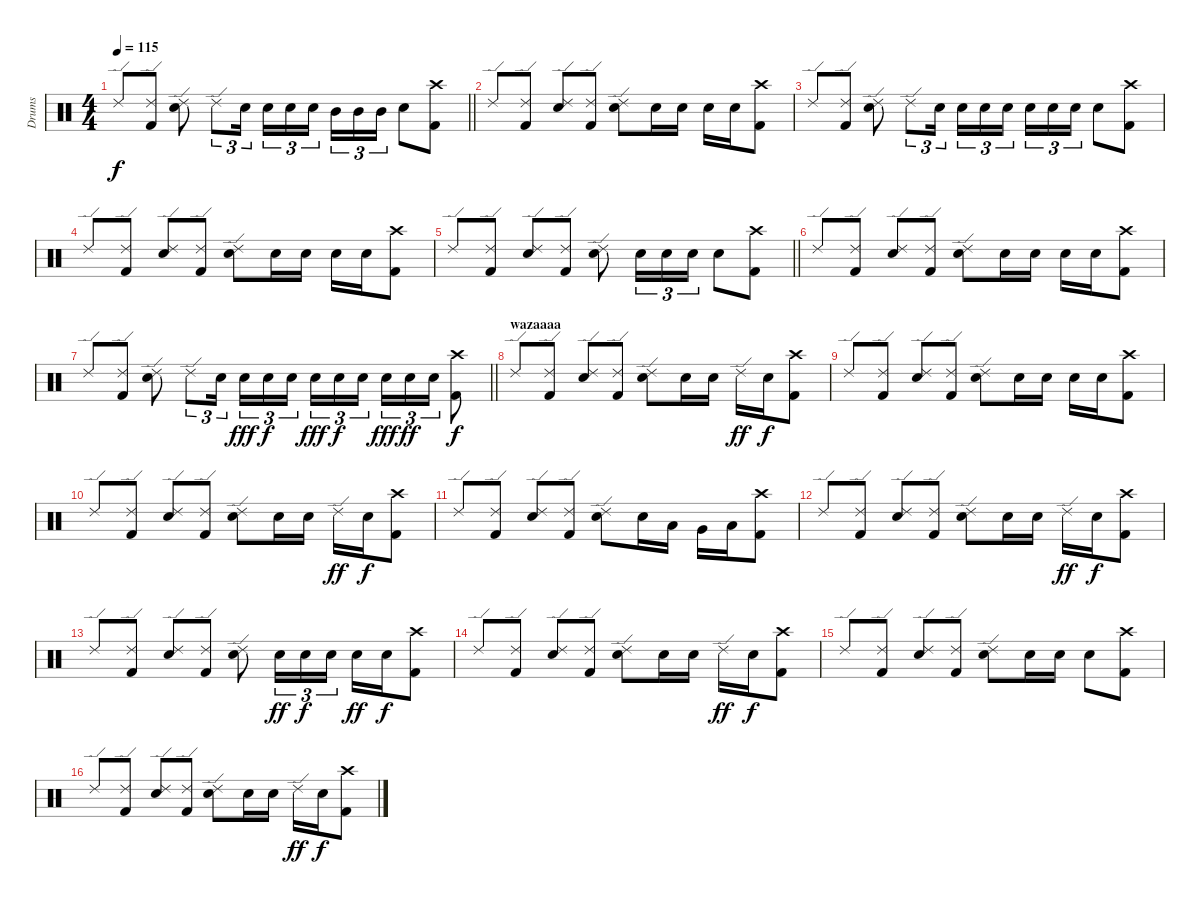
\track ("Drums" "Drums") {instrument percussion}
\staff {score}
\articulation defaults
\ts (4 4)
\tempo 115
\clef neutral
\barLineRight lightlight
\ks c "Ride (edge) 2".8{dy f}
("Ride (edge) 2" "Kick (hit) 2").8 ("Ride (edge) 2" "Electric Snare (hit)").8 "Ride (edge) 2".8{tu (3 2)} "Electric Snare (hit)".16{tu (3 2)} "Electric Snare (hit)".16{tu (3 2)} "Electric Snare (hit)".16{tu (3 2)} "Electric Snare (hit)".16{tu (3 2) beam splitsecondary} "Mid Tom (hit)".16{tu (3 2)} "Mid Tom (hit)".16{tu (3 2)} "Mid Tom (hit)".16{tu (3 2)} "Electric Snare (hit)".8 ("Crash high (hit)" "Kick (hit) 2").8 |
\section ("" "")
"Ride (edge) 2".8 ("Ride (edge) 2" "Kick (hit) 2").8 ("Ride (edge) 2" "Electric Snare (hit)").8 ("Ride (edge) 2" "Kick (hit) 2").8 ("Ride (edge) 2" "Electric Snare (hit)").8 "Electric Snare (hit)".16 "Electric Snare (hit)".16 "Electric Snare (hit)".16 "Electric Snare (hit)".16 ("Crash high (hit)" "Kick (hit) 2").8 |
"Ride (edge) 2".8 ("Ride (edge) 2" "Kick (hit) 2").8 ("Ride (edge) 2" "Electric Snare (hit)").8 "Ride (edge) 2".8{tu (3 2)} "Electric Snare (hit)".16{tu (3 2)} "Electric Snare (hit)".16{tu (3 2)} "Electric Snare (hit)".16{tu (3 2)} "Electric Snare (hit)".16{tu (3 2) beam splitsecondary} "Electric Snare (hit)".16{tu (3 2)} "Electric Snare (hit)".16{tu (3 2)} "Electric Snare (hit)".16{tu (3 2)} "Electric Snare (hit)".8 ("Crash high (hit)" "Kick (hit) 2").8 |
"Ride (edge) 2".8 ("Ride (edge) 2" "Kick (hit) 2").8 ("Ride (edge) 2" "Electric Snare (hit)").8 ("Ride (edge) 2" "Kick (hit) 2").8 ("Ride (edge) 2" "Electric Snare (hit)").8 "Electric Snare (hit)".16 "Electric Snare (hit)".16 "Electric Snare (hit)".16 "Electric Snare (hit)".16 ("Crash high (hit)" "Kick (hit) 2").8 |
\barLineRight lightlight "Ride (edge) 2".8
("Ride (edge) 2" "Kick (hit) 2").8 ("Ride (edge) 2" "Electric Snare (hit)").8 ("Ride (edge) 2" "Kick (hit) 2").8 ("Ride (edge) 2" "Electric Snare (hit)").8 "Electric Snare (hit)".16{tu (3 2)} "Electric Snare (hit)".16{tu (3 2)} "Electric Snare (hit)".16{tu (3 2)} "Electric Snare (hit)".8 ("Crash high (hit)" "Kick (hit) 2").8 |
\section ("" "")
"Ride (edge) 2".8 ("Ride (edge) 2" "Kick (hit) 2").8 ("Ride (edge) 2" "Electric Snare (hit)").8 ("Ride (edge) 2" "Kick (hit) 2").8 ("Ride (edge) 2" "Electric Snare (hit)").8 "Electric Snare (hit)".16 "Electric Snare (hit)".16 "Electric Snare (hit)".16 "Electric Snare (hit)".16 ("Crash high (hit)" "Kick (hit) 2").8 |
\barLineRight lightlight "Ride (edge) 2".8
("Ride (edge) 2" "Kick (hit) 2").8 ("Ride (edge) 2" "Electric Snare (hit)").8 "Ride (edge) 2".8{tu (3 2)} "Electric Snare (hit)".16{tu (3 2)} "Electric Snare (hit)".16{tu (3 2) dy fff} "Electric Snare (hit)".16{tu (3 2) dy f} "Electric Snare (hit)".16{tu (3 2) beam splitsecondary} "Electric Snare (hit)".16{tu (3 2) dy fff} "Electric Snare (hit)".16{tu (3 2) dy f} "Electric Snare (hit)".16{tu (3 2)} "Electric Snare (hit)".16{tu (3 2) dy fff} "Electric Snare (hit)".16{tu (3 2) dy ff} "Electric Snare (hit)".16{tu (3 2)} ("Crash high (hit)" "Kick (hit) 2").8{dy f} |
\section ("" "wazaaaa")
"Ride (edge) 2".8 ("Ride (edge) 2" "Kick (hit) 2").8 ("Ride (edge) 2" "Electric Snare (hit)").8 ("Ride (edge) 2" "Kick (hit) 2").8 ("Ride (edge) 2" "Electric Snare (hit)").8 "Electric Snare (hit)".16 "Electric Snare (hit)".16 "Ride (edge) 2".16{dy ff} "Electric Snare (hit)".16{dy f} ("Crash high (hit)" "Kick (hit) 2").8 |
"Ride (edge) 2".8 ("Ride (edge) 2" "Kick (hit) 2").8 ("Ride (edge) 2" "Electric Snare (hit)").8 ("Ride (edge) 2" "Kick (hit) 2").8 ("Ride (edge) 2" "Electric Snare (hit)").8 "Electric Snare (hit)".16 "Electric Snare (hit)".16 "Electric Snare (hit)".16 "Electric Snare (hit)".16 ("Crash high (hit)" "Kick (hit) 2").8 |
"Ride (edge) 2".8 ("Ride (edge) 2" "Kick (hit) 2").8 ("Ride (edge) 2" "Electric Snare (hit)").8 ("Ride (edge) 2" "Kick (hit) 2").8 ("Ride (edge) 2" "Electric Snare (hit)").8 "Electric Snare (hit)".16 "Electric Snare (hit)".16 "Ride (edge) 2".16{dy ff} "Electric Snare (hit)".16{dy f} ("Crash high (hit)" "Kick (hit) 2").8 |
"Ride (edge) 2".8 ("Ride (edge) 2" "Kick (hit) 2").8 ("Ride (edge) 2" "Electric Snare (hit)").8 ("Ride (edge) 2" "Kick (hit) 2").8 ("Ride (edge) 2" "Electric Snare (hit)").8 "Electric Snare (hit)".16 "Low Floor Tom (hit)".16 "Very Low Tom (hit)".16 "Low Floor Tom (hit)".16 ("Crash high (hit)" "Kick (hit) 2").8 |
"Ride (edge) 2".8 ("Ride (edge) 2" "Kick (hit) 2").8 ("Ride (edge) 2" "Electric Snare (hit)").8 ("Ride (edge) 2" "Kick (hit) 2").8 ("Ride (edge) 2" "Electric Snare (hit)").8 "Electric Snare (hit)".16 "Electric Snare (hit)".16 "Ride (edge) 2".16{dy ff} "Electric Snare (hit)".16{dy f} ("Crash high (hit)" "Kick (hit) 2").8 |
"Ride (edge) 2".8 ("Ride (edge) 2" "Kick (hit) 2").8 ("Ride (edge) 2" "Electric Snare (hit)").8 ("Ride (edge) 2" "Kick (hit) 2").8 ("Ride (edge) 2" "Electric Snare (hit)").8 "Electric Snare (hit)".16{tu (3 2) dy ff} "Electric Snare (hit)".16{tu (3 2) dy f} "Electric Snare (hit)".16{tu (3 2)} "Electric Snare (hit)".16{dy ff} "Electric Snare (hit)".16{dy f} ("Crash high (hit)" "Kick (hit) 2").8 |
"Ride (edge) 2".8 ("Ride (edge) 2" "Kick (hit) 2").8 ("Ride (edge) 2" "Electric Snare (hit)").8 ("Ride (edge) 2" "Kick (hit) 2").8 ("Ride (edge) 2" "Electric Snare (hit)").8 "Electric Snare (hit)".16 "Electric Snare (hit)".16 "Ride (edge) 2".16{dy ff} "Electric Snare (hit)".16{dy f} ("Crash high (hit)" "Kick (hit) 2").8 |
"Ride (edge) 2".8 ("Ride (edge) 2" "Kick (hit) 2").8 ("Ride (edge) 2" "Electric Snare (hit)").8 ("Ride (edge) 2" "Kick (hit) 2").8 ("Ride (edge) 2" "Electric Snare (hit)").8 "Electric Snare (hit)".16 "Electric Snare (hit)".16 "Electric Snare (hit)".8 ("Crash high (hit)" "Kick (hit) 2").8 |
"Ride (edge) 2".8 ("Ride (edge) 2" "Kick (hit) 2").8 ("Ride (edge) 2" "Electric Snare (hit)").8 ("Ride (edge) 2" "Kick (hit) 2").8 ("Ride (edge) 2" "Electric Snare (hit)").8 "Electric Snare (hit)".16 "Electric Snare (hit)".16 "Ride (edge) 2".16{dy ff} "Electric Snare (hit)".16{dy f} ("Crash high (hit)" "Kick (hit) 2").8
